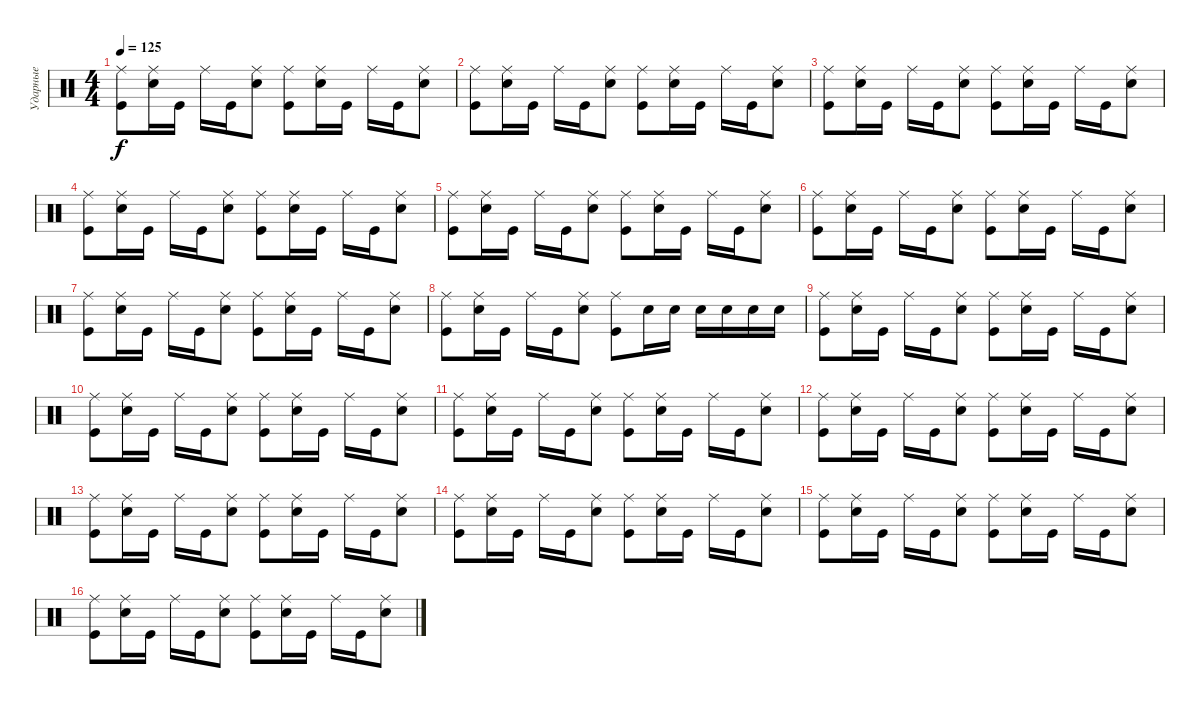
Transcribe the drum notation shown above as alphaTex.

\track ("Ударные" "Ударные") {instrument percussion}
\staff {score}
\articulation defaults
\ts (4 4)
\tempo 125
\clef neutral
\ks c
("Ride (middle)" "Kick (hit)").8{dy f} ("Ride (middle)" "Electric Snare (hit)").16 "Kick (hit)".16 "Ride (middle)".16 "Kick (hit)".16 ("Ride (middle)" "Electric Snare (hit)").8 ("Ride (middle)" "Kick (hit)").8 ("Ride (middle)" "Electric Snare (hit)").16 "Kick (hit)".16 "Ride (middle)".16 "Kick (hit)".16 ("Ride (middle)" "Electric Snare (hit)").8 |
("Ride (middle)" "Kick (hit)").8 ("Ride (middle)" "Electric Snare (hit)").16 "Kick (hit)".16 "Ride (middle)".16 "Kick (hit)".16 ("Ride (middle)" "Electric Snare (hit)").8 ("Ride (middle)" "Kick (hit)").8 ("Ride (middle)" "Electric Snare (hit)").16 "Kick (hit)".16 "Ride (middle)".16 "Kick (hit)".16 ("Ride (middle)" "Electric Snare (hit)").8 |
("Ride (middle)" "Kick (hit)").8 ("Ride (middle)" "Electric Snare (hit)").16 "Kick (hit)".16 "Ride (middle)".16 "Kick (hit)".16 ("Ride (middle)" "Electric Snare (hit)").8 ("Ride (middle)" "Kick (hit)").8 ("Ride (middle)" "Electric Snare (hit)").16 "Kick (hit)".16 "Ride (middle)".16 "Kick (hit)".16 ("Ride (middle)" "Electric Snare (hit)").8 |
("Ride (middle)" "Kick (hit)").8 ("Ride (middle)" "Electric Snare (hit)").16 "Kick (hit)".16 "Ride (middle)".16 "Kick (hit)".16 ("Ride (middle)" "Electric Snare (hit)").8 ("Ride (middle)" "Kick (hit)").8 ("Ride (middle)" "Electric Snare (hit)").16 "Kick (hit)".16 "Ride (middle)".16 "Kick (hit)".16 ("Ride (middle)" "Electric Snare (hit)").8 |
("Ride (middle)" "Kick (hit)").8 ("Ride (middle)" "Electric Snare (hit)").16 "Kick (hit)".16 "Ride (middle)".16 "Kick (hit)".16 ("Ride (middle)" "Electric Snare (hit)").8 ("Ride (middle)" "Kick (hit)").8 ("Ride (middle)" "Electric Snare (hit)").16 "Kick (hit)".16 "Ride (middle)".16 "Kick (hit)".16 ("Ride (middle)" "Electric Snare (hit)").8 |
("Ride (middle)" "Kick (hit)").8 ("Ride (middle)" "Electric Snare (hit)").16 "Kick (hit)".16 "Ride (middle)".16 "Kick (hit)".16 ("Ride (middle)" "Electric Snare (hit)").8 ("Ride (middle)" "Kick (hit)").8 ("Ride (middle)" "Electric Snare (hit)").16 "Kick (hit)".16 "Ride (middle)".16 "Kick (hit)".16 ("Ride (middle)" "Electric Snare (hit)").8 |
("Ride (middle)" "Kick (hit)").8 ("Ride (middle)" "Electric Snare (hit)").16 "Kick (hit)".16 "Ride (middle)".16 "Kick (hit)".16 ("Ride (middle)" "Electric Snare (hit)").8 ("Ride (middle)" "Kick (hit)").8 ("Ride (middle)" "Electric Snare (hit)").16 "Kick (hit)".16 "Ride (middle)".16 "Kick (hit)".16 ("Ride (middle)" "Electric Snare (hit)").8 |
("Ride (middle)" "Kick (hit)").8 ("Ride (middle)" "Electric Snare (hit)").16 "Kick (hit)".16 "Ride (middle)".16 "Kick (hit)".16 ("Ride (middle)" "Electric Snare (hit)").8 ("Ride (middle)" "Kick (hit)").8 "Electric Snare (hit)".16 "Electric Snare (hit)".16 "Electric Snare (hit)".16 "Electric Snare (hit)".16 "Electric Snare (hit)".16 "Electric Snare (hit)".16 |
("Ride (middle)" "Kick (hit)").8 ("Ride (middle)" "Electric Snare (hit)").16 "Kick (hit)".16 "Ride (middle)".16 "Kick (hit)".16 ("Ride (middle)" "Electric Snare (hit)").8 ("Ride (middle)" "Kick (hit)").8 ("Ride (middle)" "Electric Snare (hit)").16 "Kick (hit)".16 "Ride (middle)".16 "Kick (hit)".16 ("Ride (middle)" "Electric Snare (hit)").8 |
("Ride (middle)" "Kick (hit)").8 ("Ride (middle)" "Electric Snare (hit)").16 "Kick (hit)".16 "Ride (middle)".16 "Kick (hit)".16 ("Ride (middle)" "Electric Snare (hit)").8 ("Ride (middle)" "Kick (hit)").8 ("Ride (middle)" "Electric Snare (hit)").16 "Kick (hit)".16 "Ride (middle)".16 "Kick (hit)".16 ("Ride (middle)" "Electric Snare (hit)").8 |
("Ride (middle)" "Kick (hit)").8 ("Ride (middle)" "Electric Snare (hit)").16 "Kick (hit)".16 "Ride (middle)".16 "Kick (hit)".16 ("Ride (middle)" "Electric Snare (hit)").8 ("Ride (middle)" "Kick (hit)").8 ("Ride (middle)" "Electric Snare (hit)").16 "Kick (hit)".16 "Ride (middle)".16 "Kick (hit)".16 ("Ride (middle)" "Electric Snare (hit)").8 |
("Ride (middle)" "Kick (hit)").8 ("Ride (middle)" "Electric Snare (hit)").16 "Kick (hit)".16 "Ride (middle)".16 "Kick (hit)".16 ("Ride (middle)" "Electric Snare (hit)").8 ("Ride (middle)" "Kick (hit)").8 ("Ride (middle)" "Electric Snare (hit)").16 "Kick (hit)".16 "Ride (middle)".16 "Kick (hit)".16 ("Ride (middle)" "Electric Snare (hit)").8 |
("Ride (middle)" "Kick (hit)").8 ("Ride (middle)" "Electric Snare (hit)").16 "Kick (hit)".16 "Ride (middle)".16 "Kick (hit)".16 ("Ride (middle)" "Electric Snare (hit)").8 ("Ride (middle)" "Kick (hit)").8 ("Ride (middle)" "Electric Snare (hit)").16 "Kick (hit)".16 "Ride (middle)".16 "Kick (hit)".16 ("Ride (middle)" "Electric Snare (hit)").8 |
("Ride (middle)" "Kick (hit)").8 ("Ride (middle)" "Electric Snare (hit)").16 "Kick (hit)".16 "Ride (middle)".16 "Kick (hit)".16 ("Ride (middle)" "Electric Snare (hit)").8 ("Ride (middle)" "Kick (hit)").8 ("Ride (middle)" "Electric Snare (hit)").16 "Kick (hit)".16 "Ride (middle)".16 "Kick (hit)".16 ("Ride (middle)" "Electric Snare (hit)").8 |
("Ride (middle)" "Kick (hit)").8 ("Ride (middle)" "Electric Snare (hit)").16 "Kick (hit)".16 "Ride (middle)".16 "Kick (hit)".16 ("Ride (middle)" "Electric Snare (hit)").8 ("Ride (middle)" "Kick (hit)").8 ("Ride (middle)" "Electric Snare (hit)").16 "Kick (hit)".16 "Ride (middle)".16 "Kick (hit)".16 ("Ride (middle)" "Electric Snare (hit)").8 |
("Ride (middle)" "Kick (hit)").8 ("Ride (middle)" "Electric Snare (hit)").16 "Kick (hit)".16 "Ride (middle)".16 "Kick (hit)".16 ("Ride (middle)" "Electric Snare (hit)").8 ("Ride (middle)" "Kick (hit)").8 ("Ride (middle)" "Electric Snare (hit)").16 "Kick (hit)".16 "Ride (middle)".16 "Kick (hit)".16 ("Ride (middle)" "Electric Snare (hit)").8
